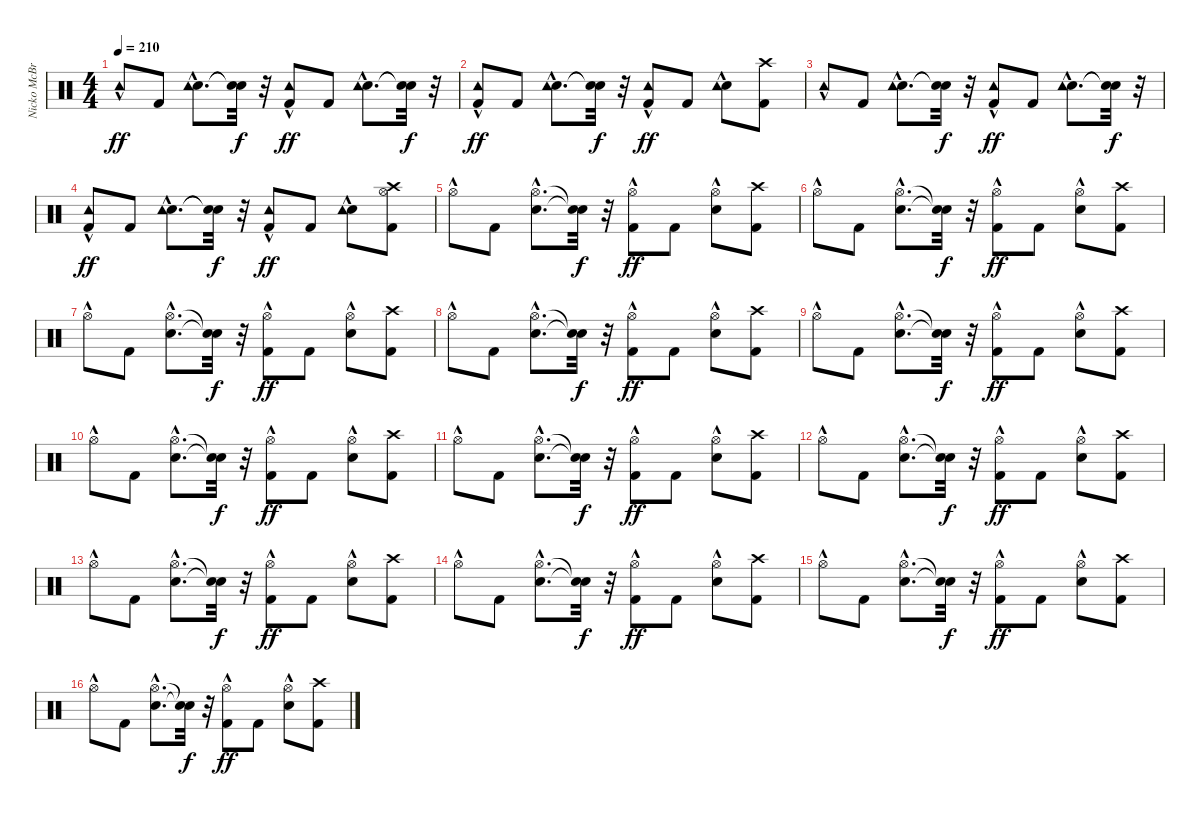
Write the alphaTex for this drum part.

\track ("Nicko McBrain" "Nicko McBr") {instrument percussion}
\staff {score}
\articulation defaults
\ts (4 4)
\tempo 210
\clef neutral
\ks c "Tambourine (hit)"{hac}.8{dy ff} "Kick (hit) 2".8
("Snare (hit) 2"{hac} "Tambourine (hit)"{hac}).8{d} ("Snare (hit)"{t} "Snare (hit)"{t}).32{dy f} r.32 ("Kick (hit) 2" "Tambourine (hit)"{hac}).8{dy ff} "Kick (hit) 2".8 ("Snare (hit) 2"{hac} "Tambourine (hit)"{hac}).8{d} ("Snare (hit)"{t} "Snare (hit)"{t}).32{dy f} r.32 |
("Kick (hit) 2" "Tambourine (hit)"{hac}).8{dy ff} "Kick (hit) 2".8 ("Snare (hit) 2"{hac} "Tambourine (hit)"{hac}).8{d} ("Snare (hit)"{t} "Snare (hit)"{t}).32{dy f} r.32 ("Kick (hit) 2" "Tambourine (hit)"{hac}).8{dy ff} "Kick (hit) 2".8 ("Snare (hit) 2" "Tambourine (hit)"{hac}).8 ("Kick (hit) 2" "Crash high (hit)").8 |
"Tambourine (hit)"{hac}.8 "Kick (hit) 2".8 ("Snare (hit) 2"{hac} "Tambourine (hit)"{hac}).8{d} ("Snare (hit)"{t} "Snare (hit)"{t}).32{dy f} r.32 ("Kick (hit) 2" "Tambourine (hit)"{hac}).8{dy ff} "Kick (hit) 2".8 ("Snare (hit) 2"{hac} "Tambourine (hit)"{hac}).8{d} ("Snare (hit)"{t} "Snare (hit)"{t}).32{dy f} r.32 |
("Kick (hit) 2" "Tambourine (hit)"{hac}).8{dy ff} "Kick (hit) 2".8 ("Snare (hit) 2"{hac} "Tambourine (hit)"{hac}).8{d} ("Snare (hit)"{t} "Snare (hit)"{t}).32{dy f} r.32 ("Kick (hit) 2" "Tambourine (hit)"{hac}).8{dy ff} "Kick (hit) 2".8 ("Snare (hit) 2" "Tambourine (hit)"{hac}).8 ("Kick (hit) 2" "Hi-Hat (open)" "Crash high (hit)").8 |
"Hi-Hat (open)"{hac}.8 "Kick (hit) 2".8 ("Snare (hit) 2"{hac} "Hi-Hat (open)"{hac}).8{d} ("Snare (hit)"{t} "Snare (hit)"{t}).32{dy f} r.32 ("Kick (hit) 2" "Hi-Hat (open)"{hac}).8{dy ff} "Kick (hit) 2".8 ("Snare (hit) 2" "Hi-Hat (open)"{hac}).8 ("Kick (hit) 2" "Crash high (hit)").8 |
"Hi-Hat (open)"{hac}.8 "Kick (hit) 2".8 ("Snare (hit) 2"{hac} "Hi-Hat (open)"{hac}).8{d} ("Snare (hit)"{t} "Snare (hit)"{t}).32{dy f} r.32 ("Kick (hit) 2" "Hi-Hat (open)"{hac}).8{dy ff} "Kick (hit) 2".8 ("Snare (hit) 2" "Hi-Hat (open)"{hac}).8 ("Kick (hit) 2" "Crash high (hit)").8 |
"Hi-Hat (open)"{hac}.8 "Kick (hit) 2".8 ("Snare (hit) 2"{hac} "Hi-Hat (open)"{hac}).8{d} ("Snare (hit)"{t} "Snare (hit)"{t}).32{dy f} r.32 ("Kick (hit) 2" "Hi-Hat (open)"{hac}).8{dy ff} "Kick (hit) 2".8 ("Snare (hit) 2" "Hi-Hat (open)"{hac}).8 ("Kick (hit) 2" "Crash high (hit)").8 |
"Hi-Hat (open)"{hac}.8 "Kick (hit) 2".8 ("Snare (hit) 2"{hac} "Hi-Hat (open)"{hac}).8{d} ("Snare (hit)"{t} "Snare (hit)"{t}).32{dy f} r.32 ("Kick (hit) 2" "Hi-Hat (open)"{hac}).8{dy ff} "Kick (hit) 2".8 ("Snare (hit) 2" "Hi-Hat (open)"{hac}).8 ("Kick (hit) 2" "Crash high (hit)").8 |
"Hi-Hat (open)"{hac}.8 "Kick (hit) 2".8 ("Snare (hit) 2"{hac} "Hi-Hat (open)"{hac}).8{d} ("Snare (hit)"{t} "Snare (hit)"{t}).32{dy f} r.32 ("Kick (hit) 2" "Hi-Hat (open)"{hac}).8{dy ff} "Kick (hit) 2".8 ("Snare (hit) 2" "Hi-Hat (open)"{hac}).8 ("Kick (hit) 2" "Crash high (hit)").8 |
"Hi-Hat (open)"{hac}.8 "Kick (hit) 2".8 ("Snare (hit) 2"{hac} "Hi-Hat (open)"{hac}).8{d} ("Snare (hit)"{t} "Snare (hit)"{t}).32{dy f} r.32 ("Kick (hit) 2" "Hi-Hat (open)"{hac}).8{dy ff} "Kick (hit) 2".8 ("Snare (hit) 2" "Hi-Hat (open)"{hac}).8 ("Kick (hit) 2" "Crash high (hit)").8 |
"Hi-Hat (open)"{hac}.8 "Kick (hit) 2".8 ("Snare (hit) 2"{hac} "Hi-Hat (open)"{hac}).8{d} ("Snare (hit)"{t} "Snare (hit)"{t}).32{dy f} r.32 ("Kick (hit) 2" "Hi-Hat (open)"{hac}).8{dy ff} "Kick (hit) 2".8 ("Snare (hit) 2" "Hi-Hat (open)"{hac}).8 ("Kick (hit) 2" "Crash high (hit)").8 |
"Hi-Hat (open)"{hac}.8 "Kick (hit) 2".8 ("Snare (hit) 2"{hac} "Hi-Hat (open)"{hac}).8{d} ("Snare (hit)"{t} "Snare (hit)"{t}).32{dy f} r.32 ("Kick (hit) 2" "Hi-Hat (open)"{hac}).8{dy ff} "Kick (hit) 2".8 ("Snare (hit) 2" "Hi-Hat (open)"{hac}).8 ("Kick (hit) 2" "Crash high (hit)").8 |
"Hi-Hat (open)"{hac}.8 "Kick (hit) 2".8 ("Snare (hit) 2"{hac} "Hi-Hat (open)"{hac}).8{d} ("Snare (hit)"{t} "Snare (hit)"{t}).32{dy f} r.32 ("Kick (hit) 2" "Hi-Hat (open)"{hac}).8{dy ff} "Kick (hit) 2".8 ("Snare (hit) 2" "Hi-Hat (open)"{hac}).8 ("Kick (hit) 2" "Crash high (hit)").8 |
"Hi-Hat (open)"{hac}.8 "Kick (hit) 2".8 ("Snare (hit) 2"{hac} "Hi-Hat (open)"{hac}).8{d} ("Snare (hit)"{t} "Snare (hit)"{t}).32{dy f} r.32 ("Kick (hit) 2" "Hi-Hat (open)"{hac}).8{dy ff} "Kick (hit) 2".8 ("Snare (hit) 2" "Hi-Hat (open)"{hac}).8 ("Kick (hit) 2" "Crash high (hit)").8 |
"Hi-Hat (open)"{hac}.8 "Kick (hit) 2".8 ("Snare (hit) 2"{hac} "Hi-Hat (open)"{hac}).8{d} ("Snare (hit)"{t} "Snare (hit)"{t}).32{dy f} r.32 ("Kick (hit) 2" "Hi-Hat (open)"{hac}).8{dy ff} "Kick (hit) 2".8 ("Snare (hit) 2" "Hi-Hat (open)"{hac}).8 ("Kick (hit) 2" "Crash high (hit)").8 |
"Hi-Hat (open)"{hac}.8 "Kick (hit) 2".8 ("Snare (hit) 2"{hac} "Hi-Hat (open)"{hac}).8{d} ("Snare (hit)"{t} "Snare (hit)"{t}).32{dy f} r.32 ("Kick (hit) 2" "Hi-Hat (open)"{hac}).8{dy ff} "Kick (hit) 2".8 ("Snare (hit) 2" "Hi-Hat (open)"{hac}).8 ("Kick (hit) 2" "Crash high (hit)").8
